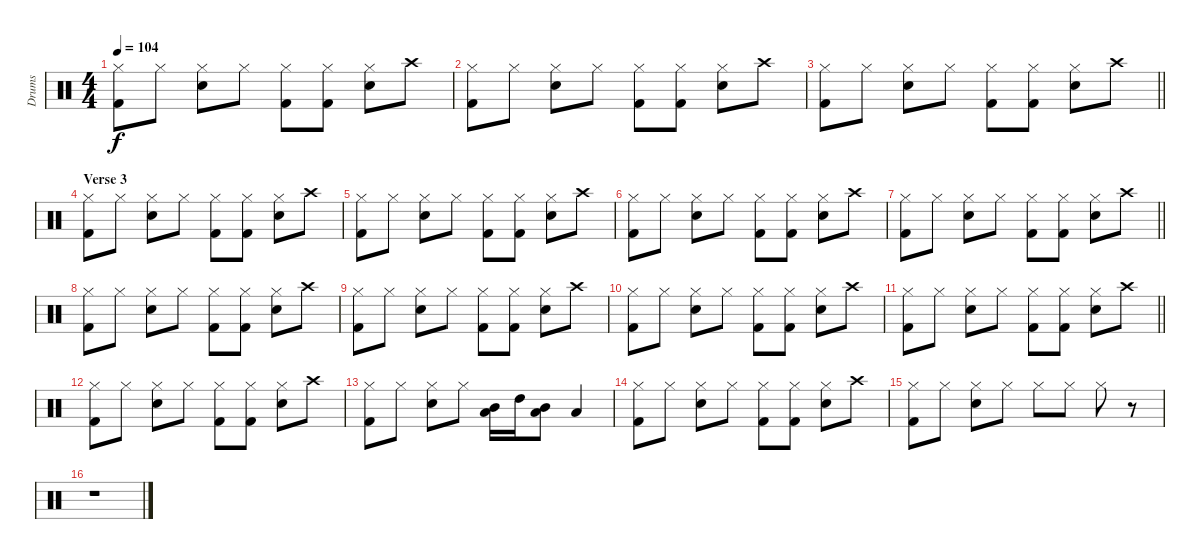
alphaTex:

\track ("Drums" "Drums") {instrument percussion}
\staff {score}
\articulation defaults
\ts (4 4)
\tempo 104
\clef neutral
\ks c
("Hi-Hat (closed)" "Kick (hit) 2").8{dy f} "Hi-Hat (closed)".8 ("Hi-Hat (closed)" "Snare (hit) 2").8 "Hi-Hat (closed)".8 ("Hi-Hat (closed)" "Kick (hit) 2").8 ("Hi-Hat (closed)" "Kick (hit) 2").8 ("Hi-Hat (closed)" "Snare (hit) 2").8 "Crash high (hit)".8 |
("Hi-Hat (closed)" "Kick (hit) 2").8 "Hi-Hat (closed)".8 ("Hi-Hat (closed)" "Snare (hit) 2").8 "Hi-Hat (closed)".8 ("Hi-Hat (closed)" "Kick (hit) 2").8 ("Hi-Hat (closed)" "Kick (hit) 2").8 ("Hi-Hat (closed)" "Snare (hit) 2").8 "Crash high (hit)".8 |
\barLineRight lightlight
("Hi-Hat (closed)" "Kick (hit) 2").8 "Hi-Hat (closed)".8 ("Hi-Hat (closed)" "Snare (hit) 2").8 "Hi-Hat (closed)".8 ("Hi-Hat (closed)" "Kick (hit) 2").8 ("Hi-Hat (closed)" "Kick (hit) 2").8 ("Hi-Hat (closed)" "Snare (hit) 2").8 "Crash high (hit)".8 |
\section ("" "Verse 3")
("Hi-Hat (closed)" "Kick (hit) 2").8 "Hi-Hat (closed)".8 ("Hi-Hat (closed)" "Snare (hit) 2").8 "Hi-Hat (closed)".8 ("Hi-Hat (closed)" "Kick (hit) 2").8 ("Hi-Hat (closed)" "Kick (hit) 2").8 ("Hi-Hat (closed)" "Snare (hit) 2").8 "Crash high (hit)".8 |
("Hi-Hat (closed)" "Kick (hit) 2").8 "Hi-Hat (closed)".8 ("Hi-Hat (closed)" "Snare (hit) 2").8 "Hi-Hat (closed)".8 ("Hi-Hat (closed)" "Kick (hit) 2").8 ("Hi-Hat (closed)" "Kick (hit) 2").8 ("Hi-Hat (closed)" "Snare (hit) 2").8 "Crash high (hit)".8 |
("Hi-Hat (closed)" "Kick (hit) 2").8 "Hi-Hat (closed)".8 ("Hi-Hat (closed)" "Snare (hit) 2").8 "Hi-Hat (closed)".8 ("Hi-Hat (closed)" "Kick (hit) 2").8 ("Hi-Hat (closed)" "Kick (hit) 2").8 ("Hi-Hat (closed)" "Snare (hit) 2").8 "Crash high (hit)".8 |
\barLineRight lightlight
("Hi-Hat (closed)" "Kick (hit) 2").8 "Hi-Hat (closed)".8 ("Hi-Hat (closed)" "Snare (hit) 2").8 "Hi-Hat (closed)".8 ("Hi-Hat (closed)" "Kick (hit) 2").8 ("Hi-Hat (closed)" "Kick (hit) 2").8 ("Hi-Hat (closed)" "Snare (hit) 2").8 "Crash high (hit)".8 |
("Hi-Hat (closed)" "Kick (hit) 2").8 "Hi-Hat (closed)".8 ("Hi-Hat (closed)" "Snare (hit) 2").8 "Hi-Hat (closed)".8 ("Hi-Hat (closed)" "Kick (hit) 2").8 ("Hi-Hat (closed)" "Kick (hit) 2").8 ("Hi-Hat (closed)" "Snare (hit) 2").8 "Crash high (hit)".8 |
("Hi-Hat (closed)" "Kick (hit) 2").8 "Hi-Hat (closed)".8 ("Hi-Hat (closed)" "Snare (hit) 2").8 "Hi-Hat (closed)".8 ("Hi-Hat (closed)" "Kick (hit) 2").8 ("Hi-Hat (closed)" "Kick (hit) 2").8 ("Hi-Hat (closed)" "Snare (hit) 2").8 "Crash high (hit)".8 |
("Hi-Hat (closed)" "Kick (hit) 2").8 "Hi-Hat (closed)".8 ("Hi-Hat (closed)" "Snare (hit) 2").8 "Hi-Hat (closed)".8 ("Hi-Hat (closed)" "Kick (hit) 2").8 ("Hi-Hat (closed)" "Kick (hit) 2").8 ("Hi-Hat (closed)" "Snare (hit) 2").8 "Crash high (hit)".8 |
\barLineRight lightlight
("Hi-Hat (closed)" "Kick (hit) 2").8 "Hi-Hat (closed)".8 ("Hi-Hat (closed)" "Snare (hit) 2").8 "Hi-Hat (closed)".8 ("Hi-Hat (closed)" "Kick (hit) 2").8 ("Hi-Hat (closed)" "Kick (hit) 2").8 ("Hi-Hat (closed)" "Snare (hit) 2").8 "Crash high (hit)".8 |
("Hi-Hat (closed)" "Kick (hit) 2").8 "Hi-Hat (closed)".8 ("Hi-Hat (closed)" "Snare (hit) 2").8 "Hi-Hat (closed)".8 ("Hi-Hat (closed)" "Kick (hit) 2").8 ("Hi-Hat (closed)" "Kick (hit) 2").8 ("Hi-Hat (closed)" "Snare (hit) 2").8 "Crash high (hit)".8 |
("Hi-Hat (closed)" "Kick (hit) 2").8 "Hi-Hat (closed)".8 ("Hi-Hat (closed)" "Snare (hit) 2").8 "Hi-Hat (closed)".8 ("Mid Tom (hit)" "Low Tom (hit)").16 "High Tom (hit)".16 ("Mid Tom (hit)" "Low Tom (hit)").8 "Low Tom (hit)".4 |
("Hi-Hat (closed)" "Kick (hit) 2").8 "Hi-Hat (closed)".8 ("Hi-Hat (closed)" "Snare (hit) 2").8 "Hi-Hat (closed)".8 ("Hi-Hat (closed)" "Kick (hit) 2").8 ("Hi-Hat (closed)" "Kick (hit) 2").8 ("Hi-Hat (closed)" "Snare (hit) 2").8 "Crash high (hit)".8 |
("Hi-Hat (closed)" "Kick (hit) 2").8 "Hi-Hat (closed)".8 ("Hi-Hat (closed)" "Snare (hit) 2").8 "Hi-Hat (closed)".8 "Hi-Hat (closed)".8 "Hi-Hat (closed)".8 "Hi-Hat (closed)".8 r.8 |
r.1
